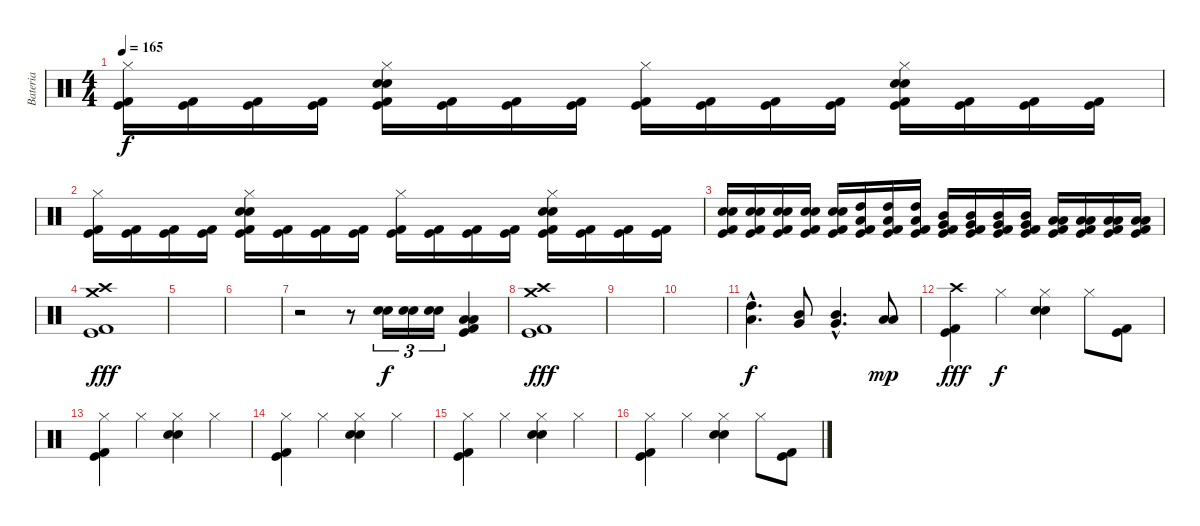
\track ("Bateria" "Bateria") {instrument percussion}
\staff {score}
\articulation defaults
\ts (4 4)
\tempo 165
\clef neutral
\ks c
("Hi-Hat (closed)" "Kick (hit) 2" "Kick (hit)").16{dy f} ("Kick (hit) 2" "Kick (hit)").16 ("Kick (hit) 2" "Kick (hit)").16 ("Kick (hit) 2" "Kick (hit)").16 ("Hi-Hat (closed)" "Electric Snare (hit)" "Snare (hit) 2" "Kick (hit) 2" "Kick (hit)").16 ("Kick (hit) 2" "Kick (hit)").16 ("Kick (hit) 2" "Kick (hit)").16 ("Kick (hit) 2" "Kick (hit)").16 ("Hi-Hat (closed)" "Kick (hit) 2" "Kick (hit)").16 ("Kick (hit) 2" "Kick (hit)").16 ("Kick (hit) 2" "Kick (hit)").16 ("Kick (hit) 2" "Kick (hit)").16 ("Hi-Hat (closed)" "Electric Snare (hit)" "Snare (hit) 2" "Kick (hit) 2" "Kick (hit)").16 ("Kick (hit) 2" "Kick (hit)").16 ("Kick (hit) 2" "Kick (hit)").16 ("Kick (hit) 2" "Kick (hit)").16 |
("Hi-Hat (closed)" "Kick (hit) 2" "Kick (hit)").16 ("Kick (hit) 2" "Kick (hit)").16 ("Kick (hit) 2" "Kick (hit)").16 ("Kick (hit) 2" "Kick (hit)").16 ("Hi-Hat (closed)" "Electric Snare (hit)" "Snare (hit) 2" "Kick (hit) 2" "Kick (hit)").16 ("Kick (hit) 2" "Kick (hit)").16 ("Kick (hit) 2" "Kick (hit)").16 ("Kick (hit) 2" "Kick (hit)").16 ("Hi-Hat (closed)" "Kick (hit) 2" "Kick (hit)").16 ("Kick (hit) 2" "Kick (hit)").16 ("Kick (hit) 2" "Kick (hit)").16 ("Kick (hit) 2" "Kick (hit)").16 ("Hi-Hat (closed)" "Electric Snare (hit)" "Snare (hit) 2" "Kick (hit) 2" "Kick (hit)").16 ("Kick (hit) 2" "Kick (hit)").16 ("Kick (hit) 2" "Kick (hit)").16 ("Kick (hit) 2" "Kick (hit)").16 |
("Electric Snare (hit)" "Snare (hit) 2" "Kick (hit) 2" "Kick (hit)").16 ("Electric Snare (hit)" "Snare (hit) 2" "Kick (hit) 2" "Kick (hit)").16 ("Electric Snare (hit)" "Snare (hit) 2" "Kick (hit) 2" "Kick (hit)").16 ("Electric Snare (hit)" "Snare (hit) 2" "Kick (hit) 2" "Kick (hit)").16 ("Electric Snare (hit)" "Snare (hit) 2" "Kick (hit) 2" "Kick (hit)").16 ("High Tom (hit)" "Low Tom (hit)" "Kick (hit) 2" "Kick (hit)").16 ("High Tom (hit)" "Low Tom (hit)" "Kick (hit) 2" "Kick (hit)").16 ("High Tom (hit)" "Low Tom (hit)" "Kick (hit) 2" "Kick (hit)").16 ("Mid Tom (hit)" "Very Low Tom (hit)" "Kick (hit) 2" "Kick (hit)").16 ("Mid Tom (hit)" "Very Low Tom (hit)" "Kick (hit) 2" "Kick (hit)").16 ("Mid Tom (hit)" "Very Low Tom (hit)" "Kick (hit) 2" "Kick (hit)").16 ("Mid Tom (hit)" "Very Low Tom (hit)" "Kick (hit) 2" "Kick (hit)").16 ("Low Tom (hit)" "Low Floor Tom (hit)" "Kick (hit) 2" "Kick (hit)").16 ("Low Tom (hit)" "Low Floor Tom (hit)" "Kick (hit) 2" "Kick (hit)").16 ("Low Tom (hit)" "Low Floor Tom (hit)" "Kick (hit) 2" "Kick (hit)").16 ("Low Tom (hit)" "Low Floor Tom (hit)" "Kick (hit) 2" "Kick (hit)").16 |
("Crash high (hit)" "Crash medium (hit)" "Kick (hit) 2" "Kick (hit)").1{dy fff} |
|
|
r.2 r.8 ("Electric Snare (hit)" "Snare (hit) 2").16{tu (3 2) dy f} ("Electric Snare (hit)" "Snare (hit) 2").16{tu (3 2)} ("Electric Snare (hit)" "Snare (hit) 2").16{tu (3 2)} ("Low Tom (hit)" "Low Floor Tom (hit)" "Kick (hit) 2" "Kick (hit)").4 |
("Crash high (hit)" "Crash medium (hit)" "Kick (hit) 2" "Kick (hit)").1{dy fff} |
|
|
("High Tom (hit)"{hac} "Low Tom (hit)"{hac}).4{d dy f} ("Mid Tom (hit)" "Very Low Tom (hit)").8 ("Mid Tom (hit)"{hac} "Very Low Tom (hit)"{hac}).4{d} ("Low Tom (hit)" "Low Floor Tom (hit)").8{dy mp} |
("Crash high (hit)" "Kick (hit) 2" "Kick (hit)").4{dy fff} "Hi-Hat (closed)".4{dy f} ("Hi-Hat (closed)" "Electric Snare (hit)" "Snare (hit) 2").4 "Hi-Hat (closed)".8 ("Kick (hit) 2" "Kick (hit)").8 |
("Hi-Hat (closed)" "Kick (hit) 2" "Kick (hit)").4 "Hi-Hat (closed)".4 ("Hi-Hat (closed)" "Electric Snare (hit)" "Snare (hit) 2").4 "Hi-Hat (closed)".4 |
("Hi-Hat (closed)" "Kick (hit) 2" "Kick (hit)").4 "Hi-Hat (closed)".4 ("Hi-Hat (closed)" "Electric Snare (hit)" "Snare (hit) 2").4 "Hi-Hat (closed)".4 |
("Hi-Hat (closed)" "Kick (hit) 2" "Kick (hit)").4 "Hi-Hat (closed)".4 ("Hi-Hat (closed)" "Electric Snare (hit)" "Snare (hit) 2").4 "Hi-Hat (closed)".4 |
("Hi-Hat (closed)" "Kick (hit) 2" "Kick (hit)").4 "Hi-Hat (closed)".4 ("Hi-Hat (closed)" "Electric Snare (hit)" "Snare (hit) 2").4 "Hi-Hat (closed)".8 ("Kick (hit) 2" "Kick (hit)").8
